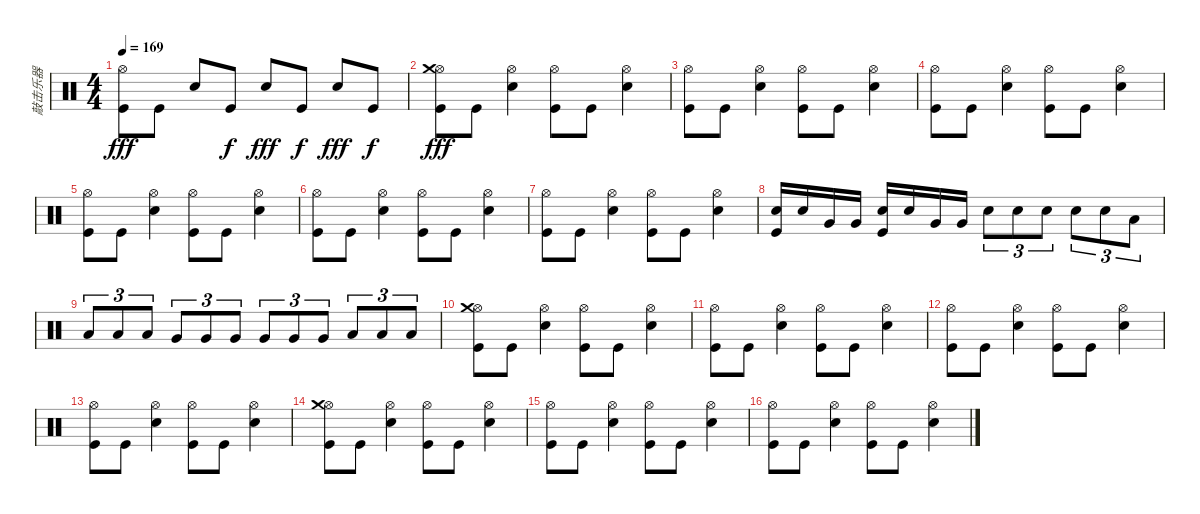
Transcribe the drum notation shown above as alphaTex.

\track ("敲击乐器" "敲击乐器") {instrument percussion}
\staff {score}
\articulation defaults
\ts (4 4)
\tempo 169
\clef neutral
\ks c
("Hi-Hat (open)" "Kick (hit)").8{dy fff} "Kick (hit)".8 "Electric Snare (hit)".8 "Kick (hit)".8{dy f} "Electric Snare (hit)".8{dy fff} "Kick (hit)".8{dy f} "Electric Snare (hit)".8{dy fff} "Kick (hit)".8{dy f} |
("Hi-Hat (open)" "Crash medium (hit)" "Kick (hit)").8{dy fff} "Kick (hit)".8 ("Electric Snare (hit)" "Hi-Hat (open)").4 ("Hi-Hat (open)" "Kick (hit)").8 "Kick (hit)".8 ("Hi-Hat (open)" "Electric Snare (hit)").4 |
("Hi-Hat (open)" "Kick (hit)").8 "Kick (hit)".8 ("Electric Snare (hit)" "Hi-Hat (open)").4 ("Hi-Hat (open)" "Kick (hit)").8 "Kick (hit)".8 ("Electric Snare (hit)" "Hi-Hat (open)").4 |
("Hi-Hat (open)" "Kick (hit)").8 "Kick (hit)".8 ("Electric Snare (hit)" "Hi-Hat (open)").4 ("Hi-Hat (open)" "Kick (hit)").8 "Kick (hit)".8 ("Electric Snare (hit)" "Hi-Hat (open)").4 |
("Hi-Hat (open)" "Kick (hit)").8 "Kick (hit)".8 ("Electric Snare (hit)" "Hi-Hat (open)").4 ("Hi-Hat (open)" "Kick (hit)").8 "Kick (hit)".8 ("Electric Snare (hit)" "Hi-Hat (open)").4 |
("Hi-Hat (open)" "Kick (hit)").8 "Kick (hit)".8 ("Electric Snare (hit)" "Hi-Hat (open)").4 ("Hi-Hat (open)" "Kick (hit)").8 "Kick (hit)".8 ("Electric Snare (hit)" "Hi-Hat (open)").4 |
("Hi-Hat (open)" "Kick (hit)").8 "Kick (hit)".8 ("Electric Snare (hit)" "Hi-Hat (open)").4 ("Hi-Hat (open)" "Kick (hit)").8 "Kick (hit)".8 ("Electric Snare (hit)" "Hi-Hat (open)").4 |
("Electric Snare (hit)" "Kick (hit)").16 "Electric Snare (hit)".16 "Very Low Tom (hit)".16 "Very Low Tom (hit)".16 ("Electric Snare (hit)" "Kick (hit)").16 "Electric Snare (hit)".16 "Very Low Tom (hit)".16 "Very Low Tom (hit)".16 "Electric Snare (hit)".8{tu (3 2)} "Electric Snare (hit)".8{tu (3 2)} "Electric Snare (hit)".8{tu (3 2)} "Electric Snare (hit)".8{tu (3 2)} "Electric Snare (hit)".8{tu (3 2)} "Low Tom (hit)".8{tu (3 2)} |
"Low Tom (hit)".8{tu (3 2)} "Low Tom (hit)".8{tu (3 2)} "Low Tom (hit)".8{tu (3 2)} "Very Low Tom (hit)".8{tu (3 2)} "Very Low Tom (hit)".8{tu (3 2)} "Very Low Tom (hit)".8{tu (3 2)} "Very Low Tom (hit)".8{tu (3 2)} "Very Low Tom (hit)".8{tu (3 2)} "Very Low Tom (hit)".8{tu (3 2)} "Low Floor Tom (hit)".8{tu (3 2)} "Low Floor Tom (hit)".8{tu (3 2)} "Low Floor Tom (hit)".8{tu (3 2)} |
("Hi-Hat (open)" "Crash medium (hit)" "Kick (hit)").8 "Kick (hit)".8 ("Electric Snare (hit)" "Hi-Hat (open)").4 ("Hi-Hat (open)" "Kick (hit)").8 "Kick (hit)".8 ("Hi-Hat (open)" "Electric Snare (hit)").4 |
("Hi-Hat (open)" "Kick (hit)").8 "Kick (hit)".8 ("Electric Snare (hit)" "Hi-Hat (open)").4 ("Hi-Hat (open)" "Kick (hit)").8 "Kick (hit)".8 ("Electric Snare (hit)" "Hi-Hat (open)").4 |
("Hi-Hat (open)" "Kick (hit)").8 "Kick (hit)".8 ("Electric Snare (hit)" "Hi-Hat (open)").4 ("Hi-Hat (open)" "Kick (hit)").8 "Kick (hit)".8 ("Electric Snare (hit)" "Hi-Hat (open)").4 |
("Hi-Hat (open)" "Kick (hit)").8 "Kick (hit)".8 ("Electric Snare (hit)" "Hi-Hat (open)").4 ("Hi-Hat (open)" "Kick (hit)").8 "Kick (hit)".8 ("Electric Snare (hit)" "Hi-Hat (open)").4 |
("Hi-Hat (open)" "Crash medium (hit)" "Kick (hit)").8 "Kick (hit)".8 ("Electric Snare (hit)" "Hi-Hat (open)").4 ("Hi-Hat (open)" "Kick (hit)").8 "Kick (hit)".8 ("Hi-Hat (open)" "Electric Snare (hit)").4 |
("Hi-Hat (open)" "Kick (hit)").8 "Kick (hit)".8 ("Electric Snare (hit)" "Hi-Hat (open)").4 ("Hi-Hat (open)" "Kick (hit)").8 "Kick (hit)".8 ("Electric Snare (hit)" "Hi-Hat (open)").4 |
("Hi-Hat (open)" "Kick (hit)").8 "Kick (hit)".8 ("Electric Snare (hit)" "Hi-Hat (open)").4 ("Hi-Hat (open)" "Kick (hit)").8 "Kick (hit)".8 ("Electric Snare (hit)" "Hi-Hat (open)").4
